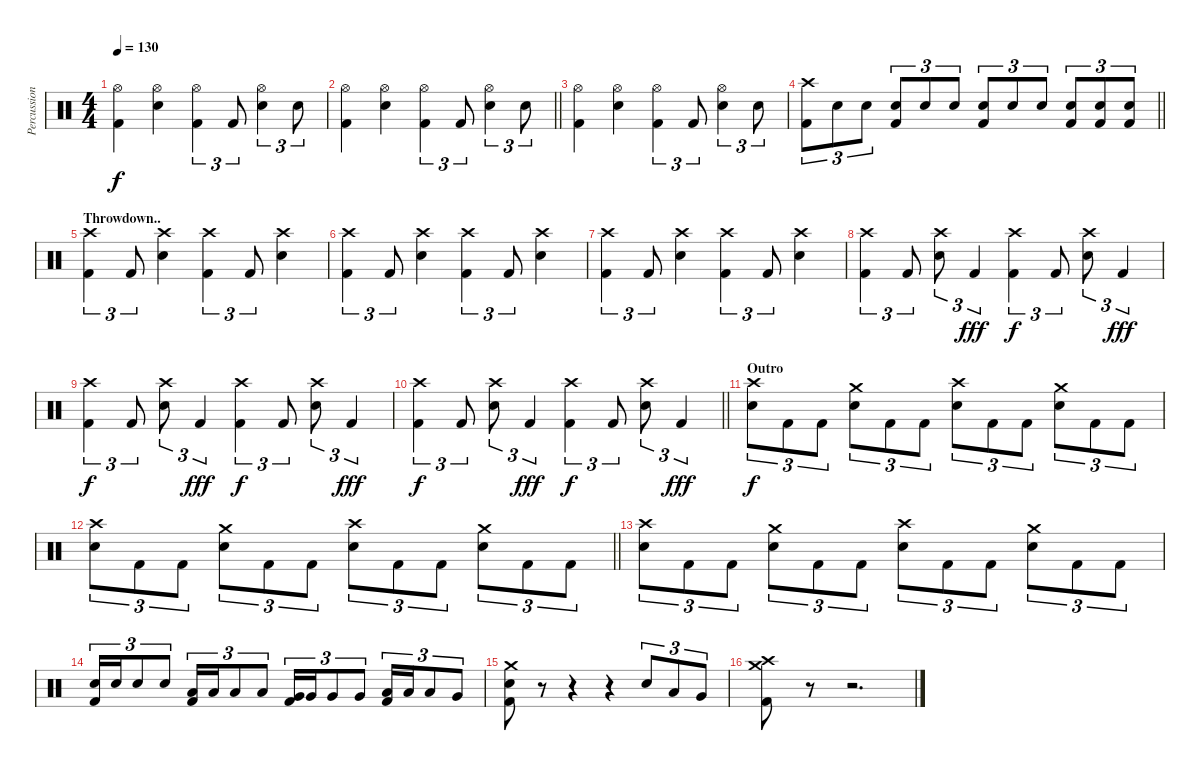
\track ("Percussion" "Percussion") {instrument percussion}
\staff {score}
\articulation defaults
\ts (4 4)
\tempo 130
\clef neutral
\ks c
("Hi-Hat (open)" "Kick (hit) 2").4{dy f} ("Hi-Hat (open)" "Electric Snare (hit)").4 ("Hi-Hat (open)" "Kick (hit) 2").4{tu (3 2)} "Kick (hit) 2".8{tu (3 2)} ("Hi-Hat (open)" "Electric Snare (hit)").4{tu (3 2)} "Electric Snare (hit)".8{tu (3 2)} |
\barLineRight lightlight
("Hi-Hat (open)" "Kick (hit) 2").4 ("Hi-Hat (open)" "Electric Snare (hit)").4 ("Hi-Hat (open)" "Kick (hit) 2").4{tu (3 2)} "Kick (hit) 2".8{tu (3 2)} ("Hi-Hat (open)" "Electric Snare (hit)").4{tu (3 2)} "Electric Snare (hit)".8{tu (3 2)} |
("Hi-Hat (open)" "Kick (hit) 2").4 ("Hi-Hat (open)" "Electric Snare (hit)").4 ("Hi-Hat (open)" "Kick (hit) 2").4{tu (3 2)} "Kick (hit) 2".8{tu (3 2)} ("Hi-Hat (open)" "Electric Snare (hit)").4{tu (3 2)} "Electric Snare (hit)".8{tu (3 2)} |
\barLineRight lightlight
("Crash high (hit)" "Kick (hit) 2").8{tu (3 2)} "Electric Snare (hit)".8{tu (3 2)} "Electric Snare (hit)".8{tu (3 2)} ("Electric Snare (hit)" "Kick (hit) 2").8{tu (3 2)} "Electric Snare (hit)".8{tu (3 2)} "Electric Snare (hit)".8{tu (3 2)} ("Electric Snare (hit)" "Kick (hit) 2").8{tu (3 2)} "Electric Snare (hit)".8{tu (3 2)} "Electric Snare (hit)".8{tu (3 2)} ("Electric Snare (hit)" "Kick (hit) 2").8{tu (3 2)} ("Electric Snare (hit)" "Kick (hit) 2").8{tu (3 2)} ("Electric Snare (hit)" "Kick (hit) 2").8{tu (3 2)} |
\section ("" "Throwdown..")
("Crash high (hit)" "Kick (hit) 2").4{tu (3 2)} "Kick (hit) 2".8{tu (3 2)} ("Crash high (hit)" "Electric Snare (hit)").4 ("Crash high (hit)" "Kick (hit) 2").4{tu (3 2)} "Kick (hit) 2".8{tu (3 2)} ("Crash high (hit)" "Electric Snare (hit)").4 |
("Crash high (hit)" "Kick (hit) 2").4{tu (3 2)} "Kick (hit) 2".8{tu (3 2)} ("Crash high (hit)" "Electric Snare (hit)").4 ("Crash high (hit)" "Kick (hit) 2").4{tu (3 2)} "Kick (hit) 2".8{tu (3 2)} ("Crash high (hit)" "Electric Snare (hit)").4 |
("Crash high (hit)" "Kick (hit) 2").4{tu (3 2)} "Kick (hit) 2".8{tu (3 2)} ("Crash high (hit)" "Electric Snare (hit)").4 ("Crash high (hit)" "Kick (hit) 2").4{tu (3 2)} "Kick (hit) 2".8{tu (3 2)} ("Crash high (hit)" "Electric Snare (hit)").4 |
("Crash high (hit)" "Kick (hit) 2").4{tu (3 2)} "Kick (hit) 2".8{tu (3 2)} ("Crash high (hit)" "Electric Snare (hit)").8{tu (3 2)} "Kick (hit) 2".4{tu (3 2) dy fff} ("Crash high (hit)" "Kick (hit) 2").4{tu (3 2) dy f} "Kick (hit) 2".8{tu (3 2)} ("Crash high (hit)" "Electric Snare (hit)").8{tu (3 2)} "Kick (hit) 2".4{tu (3 2) dy fff} |
("Crash high (hit)" "Kick (hit) 2").4{tu (3 2) dy f} "Kick (hit) 2".8{tu (3 2)} ("Crash high (hit)" "Electric Snare (hit)").8{tu (3 2)} "Kick (hit) 2".4{tu (3 2) dy fff} ("Crash high (hit)" "Kick (hit) 2").4{tu (3 2) dy f} "Kick (hit) 2".8{tu (3 2)} ("Crash high (hit)" "Electric Snare (hit)").8{tu (3 2)} "Kick (hit) 2".4{tu (3 2) dy fff} |
\barLineRight lightlight
("Crash high (hit)" "Kick (hit) 2").4{tu (3 2) dy f} "Kick (hit) 2".8{tu (3 2)} ("Crash high (hit)" "Electric Snare (hit)").8{tu (3 2)} "Kick (hit) 2".4{tu (3 2) dy fff} ("Crash high (hit)" "Kick (hit) 2").4{tu (3 2) dy f} "Kick (hit) 2".8{tu (3 2)} ("Crash high (hit)" "Electric Snare (hit)").8{tu (3 2)} "Kick (hit) 2".4{tu (3 2) dy fff} |
\section ("" "Outro")
("Crash high (hit)" "Electric Snare (hit)").8{tu (3 2) dy f} "Kick (hit) 2".8{tu (3 2)} "Kick (hit) 2".8{tu (3 2)} ("Crash medium (hit)" "Electric Snare (hit)").8{tu (3 2)} "Kick (hit) 2".8{tu (3 2)} "Kick (hit) 2".8{tu (3 2)} ("Crash high (hit)" "Electric Snare (hit)").8{tu (3 2)} "Kick (hit) 2".8{tu (3 2)} "Kick (hit) 2".8{tu (3 2)} ("Crash medium (hit)" "Electric Snare (hit)").8{tu (3 2)} "Kick (hit) 2".8{tu (3 2)} "Kick (hit) 2".8{tu (3 2)} |
\barLineRight lightlight
("Crash high (hit)" "Electric Snare (hit)").8{tu (3 2)} "Kick (hit) 2".8{tu (3 2)} "Kick (hit) 2".8{tu (3 2)} ("Crash medium (hit)" "Electric Snare (hit)").8{tu (3 2)} "Kick (hit) 2".8{tu (3 2)} "Kick (hit) 2".8{tu (3 2)} ("Crash high (hit)" "Electric Snare (hit)").8{tu (3 2)} "Kick (hit) 2".8{tu (3 2)} "Kick (hit) 2".8{tu (3 2)} ("Crash medium (hit)" "Electric Snare (hit)").8{tu (3 2)} "Kick (hit) 2".8{tu (3 2)} "Kick (hit) 2".8{tu (3 2)} |
("Crash high (hit)" "Electric Snare (hit)").8{tu (3 2)} "Kick (hit) 2".8{tu (3 2)} "Kick (hit) 2".8{tu (3 2)} ("Crash medium (hit)" "Electric Snare (hit)").8{tu (3 2)} "Kick (hit) 2".8{tu (3 2)} "Kick (hit) 2".8{tu (3 2)} ("Crash high (hit)" "Electric Snare (hit)").8{tu (3 2)} "Kick (hit) 2".8{tu (3 2)} "Kick (hit) 2".8{tu (3 2)} ("Crash medium (hit)" "Electric Snare (hit)").8{tu (3 2)} "Kick (hit) 2".8{tu (3 2)} "Kick (hit) 2".8{tu (3 2)} |
("Electric Snare (hit)" "Kick (hit) 2").16{tu (3 2)} "Electric Snare (hit)".16{tu (3 2)} "Electric Snare (hit)".8{tu (3 2)} "Electric Snare (hit)".8{tu (3 2)} ("Low Tom (hit)" "Kick (hit) 2").16{tu (3 2)} "Low Tom (hit)".16{tu (3 2)} "Low Tom (hit)".8{tu (3 2)} "Low Tom (hit)".8{tu (3 2)} ("Very Low Tom (hit)" "Kick (hit) 2").16{tu (3 2)} "Very Low Tom (hit)".16{tu (3 2)} "Very Low Tom (hit)".8{tu (3 2)} "Very Low Tom (hit)".8{tu (3 2)} ("Low Floor Tom (hit)" "Kick (hit) 2").16{tu (3 2)} "Low Floor Tom (hit)".16{tu (3 2)} "Low Floor Tom (hit)".8{tu (3 2)} "Very Low Tom (hit)".8{tu (3 2)} |
("Crash medium (hit)" "Electric Snare (hit)" "Kick (hit) 2").8 r.8 r.4 r.4 "Electric Snare (hit)".8{tu (3 2)} "Low Tom (hit)".8{tu (3 2)} "Very Low Tom (hit)".8{tu (3 2)} |
("Crash high (hit)" "Crash medium (hit)" "Kick (hit) 2").8 r.8 r.2{d}
